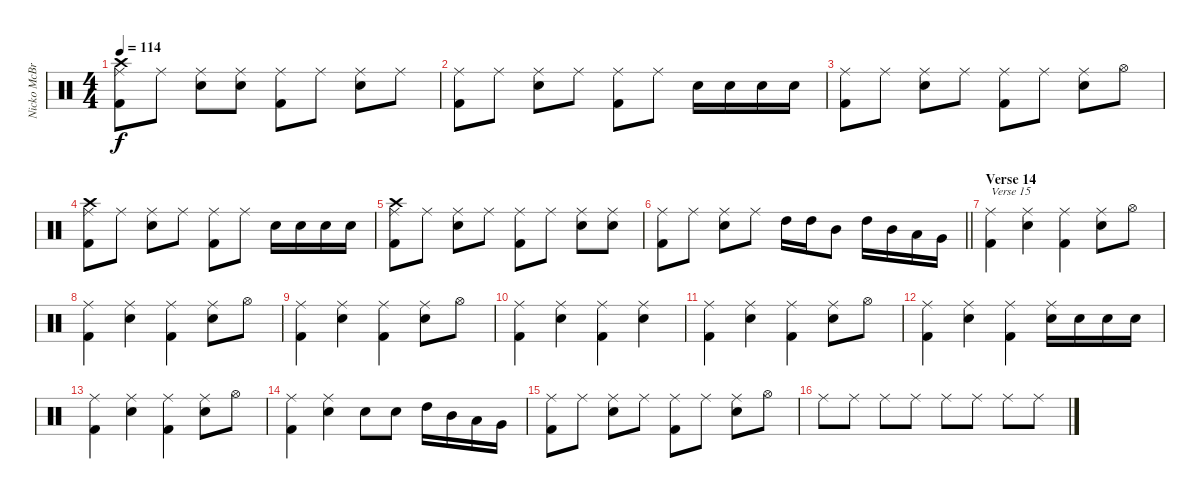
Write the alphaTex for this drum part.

\track ("Nicko McBrain" "Nicko McBr") {instrument percussion}
\staff {score}
\articulation defaults
\ts (4 4)
\tempo 114
\clef neutral
\ks c
("Ride (middle)" "Kick (hit) 2" "Crash high (hit)").8{dy f} "Ride (middle)".8 ("Ride (middle)" "Snare (hit) 2").8 ("Ride (middle)" "Snare (hit) 2").8 ("Ride (middle)" "Kick (hit) 2").8 "Ride (middle)".8 ("Ride (middle)" "Snare (hit) 2").8 "Ride (middle)".8 |
("Ride (middle)" "Kick (hit) 2").8 "Ride (middle)".8 ("Ride (middle)" "Snare (hit) 2").8 "Ride (middle)".8 ("Ride (middle)" "Kick (hit) 2").8 "Ride (middle)".8 "Snare (hit) 2".16 "Snare (hit) 2".16 "Snare (hit) 2".16 "Snare (hit) 2".16 |
("Ride (middle)" "Kick (hit) 2").8 "Ride (middle)".8 ("Ride (middle)" "Snare (hit) 2").8 "Ride (middle)".8 ("Ride (middle)" "Kick (hit) 2").8 "Ride (middle)".8 ("Ride (middle)" "Snare (hit) 2").8 "Hi-Hat (open)".8 |
("Ride (middle)" "Kick (hit) 2" "Crash high (hit)").8 "Ride (middle)".8 ("Ride (middle)" "Snare (hit) 2").8 "Ride (middle)".8 ("Ride (middle)" "Kick (hit) 2").8 "Ride (middle)".8 "Snare (hit) 2".16 "Snare (hit) 2".16 "Snare (hit) 2".16 "Snare (hit) 2".16 |
("Ride (middle)" "Kick (hit) 2" "Crash high (hit)").8 "Ride (middle)".8 ("Ride (middle)" "Snare (hit) 2").8 "Ride (middle)".8 ("Ride (middle)" "Kick (hit) 2").8 "Ride (middle)".8 ("Ride (middle)" "Snare (hit) 2").8 ("Ride (middle)" "Snare (hit) 2").8 |
\barLineRight lightlight
("Ride (middle)" "Kick (hit) 2").8 "Ride (middle)".8 ("Ride (middle)" "Snare (hit) 2").8 "Ride (middle)".8 "High Tom (hit)".16 "High Tom (hit)".16 "Mid Tom (hit)".8 "High Tom (hit)".16 "Mid Tom (hit)".16 "Low Tom (hit)".16 "Very Low Tom (hit)".16 |
\section ("" "Verse 14")
("Ride (middle)" "Kick (hit) 2").4{txt "Verse 15"} ("Ride (middle)" "Snare (hit) 2").4 ("Ride (middle)" "Kick (hit) 2").4 ("Ride (middle)" "Snare (hit) 2").8 "Hi-Hat (open)".8 |
("Ride (middle)" "Kick (hit) 2").4 ("Ride (middle)" "Snare (hit) 2").4 ("Ride (middle)" "Kick (hit) 2").4 ("Ride (middle)" "Snare (hit) 2").8 "Hi-Hat (open)".8 |
("Ride (middle)" "Kick (hit) 2").4 ("Ride (middle)" "Snare (hit) 2").4 ("Ride (middle)" "Kick (hit) 2").4 ("Ride (middle)" "Snare (hit) 2").8 "Hi-Hat (open)".8 |
("Ride (middle)" "Kick (hit) 2").4 ("Ride (middle)" "Snare (hit) 2").4 ("Ride (middle)" "Kick (hit) 2").4 ("Ride (middle)" "Snare (hit) 2").4 |
("Ride (middle)" "Kick (hit) 2").4 ("Ride (middle)" "Snare (hit) 2").4 ("Ride (middle)" "Kick (hit) 2").4 ("Ride (middle)" "Snare (hit) 2").8 "Hi-Hat (open)".8 |
("Ride (middle)" "Kick (hit) 2").4 ("Ride (middle)" "Snare (hit) 2").4 ("Ride (middle)" "Kick (hit) 2").4 ("Ride (middle)" "Snare (hit) 2").16 "Snare (hit) 2".16 "Snare (hit) 2".16 "Snare (hit) 2".16 |
("Ride (middle)" "Kick (hit) 2").4 ("Ride (middle)" "Snare (hit) 2").4 ("Ride (middle)" "Kick (hit) 2").4 ("Ride (middle)" "Snare (hit) 2").8 "Hi-Hat (open)".8 |
("Ride (middle)" "Kick (hit) 2").4 ("Ride (middle)" "Snare (hit) 2").4 "Snare (hit) 2".8 "Snare (hit) 2".8 "High Tom (hit)".16 "Mid Tom (hit)".16 "Low Tom (hit)".16 "Very Low Tom (hit)".16 |
("Ride (middle)" "Kick (hit) 2").8 "Ride (middle)".8 ("Ride (middle)" "Snare (hit) 2").8 "Ride (middle)".8 ("Ride (middle)" "Kick (hit) 2").8 "Ride (middle)".8 ("Ride (middle)" "Snare (hit) 2").8 "Hi-Hat (open)".8 |
"Ride (middle)".8 "Ride (middle)".8 "Ride (middle)".8 "Ride (middle)".8 "Ride (middle)".8 "Ride (middle)".8 "Ride (middle)".8 "Ride (middle)".8
